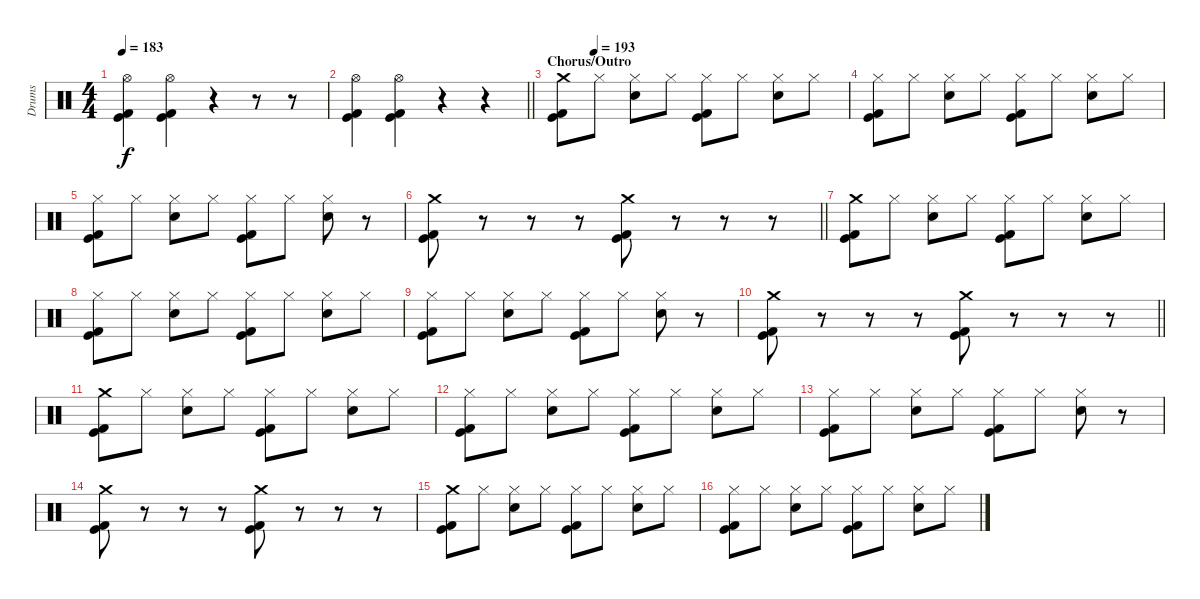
\track ("Drums" "Drums") {instrument percussion}
\staff
\articulation defaults
\ts (4 4)
\tempo 183
\clef neutral
\ks c
("Hi-Hat (open)" "Kick (hit)" "Kick (hit) 2").4{dy f} ("Hi-Hat (open)" "Kick (hit)" "Kick (hit) 2").4 r.4 r.8 r.8 |
\barLineRight lightlight
("Hi-Hat (open)" "Kick (hit)" "Kick (hit) 2").4 ("Hi-Hat (open)" "Kick (hit)" "Kick (hit) 2").4 r.4 r.4 |
\section ("" "Chorus/Outro")
\tempo (193 0.125)
("Crash medium (hit)" "Kick (hit)" "Kick (hit) 2").8 "Hi-Hat (closed)".8 ("Hi-Hat (closed)" "Snare (hit) 2").8 "Hi-Hat (closed)".8 ("Hi-Hat (closed)" "Kick (hit)" "Kick (hit) 2").8 "Hi-Hat (closed)".8 ("Hi-Hat (closed)" "Snare (hit) 2").8 "Hi-Hat (closed)".8 |
("Hi-Hat (closed)" "Kick (hit)" "Kick (hit) 2").8 "Hi-Hat (closed)".8 ("Hi-Hat (closed)" "Snare (hit) 2").8 "Hi-Hat (closed)".8 ("Hi-Hat (closed)" "Kick (hit)" "Kick (hit) 2").8 "Hi-Hat (closed)".8 ("Hi-Hat (closed)" "Snare (hit) 2").8 "Hi-Hat (closed)".8 |
("Hi-Hat (closed)" "Kick (hit)" "Kick (hit) 2").8 "Hi-Hat (closed)".8 ("Hi-Hat (closed)" "Snare (hit) 2").8 "Hi-Hat (closed)".8 ("Hi-Hat (closed)" "Kick (hit)" "Kick (hit) 2").8 "Hi-Hat (closed)".8 ("Hi-Hat (closed)" "Snare (hit) 2").8 r.8 |
\barLineRight lightlight
("Crash medium (hit)" "Kick (hit)" "Kick (hit) 2").8 r.8 r.8 r.8 ("Crash medium (hit)" "Kick (hit)" "Kick (hit) 2").8 r.8 r.8 r.8 |
("Crash medium (hit)" "Kick (hit)" "Kick (hit) 2").8 "Hi-Hat (closed)".8 ("Hi-Hat (closed)" "Snare (hit) 2").8 "Hi-Hat (closed)".8 ("Hi-Hat (closed)" "Kick (hit)" "Kick (hit) 2").8 "Hi-Hat (closed)".8 ("Hi-Hat (closed)" "Snare (hit) 2").8 "Hi-Hat (closed)".8 |
("Hi-Hat (closed)" "Kick (hit)" "Kick (hit) 2").8 "Hi-Hat (closed)".8 ("Hi-Hat (closed)" "Snare (hit) 2").8 "Hi-Hat (closed)".8 ("Hi-Hat (closed)" "Kick (hit)" "Kick (hit) 2").8 "Hi-Hat (closed)".8 ("Hi-Hat (closed)" "Snare (hit) 2").8 "Hi-Hat (closed)".8 |
("Hi-Hat (closed)" "Kick (hit)" "Kick (hit) 2").8 "Hi-Hat (closed)".8 ("Hi-Hat (closed)" "Snare (hit) 2").8 "Hi-Hat (closed)".8 ("Hi-Hat (closed)" "Kick (hit)" "Kick (hit) 2").8 "Hi-Hat (closed)".8 ("Hi-Hat (closed)" "Snare (hit) 2").8 r.8 |
\barLineRight lightlight
("Crash medium (hit)" "Kick (hit)" "Kick (hit) 2").8 r.8 r.8 r.8 ("Crash medium (hit)" "Kick (hit)" "Kick (hit) 2").8 r.8 r.8 r.8 |
("Crash medium (hit)" "Kick (hit)" "Kick (hit) 2").8 "Hi-Hat (closed)".8 ("Hi-Hat (closed)" "Snare (hit) 2").8 "Hi-Hat (closed)".8 ("Hi-Hat (closed)" "Kick (hit)" "Kick (hit) 2").8 "Hi-Hat (closed)".8 ("Hi-Hat (closed)" "Snare (hit) 2").8 "Hi-Hat (closed)".8 |
("Hi-Hat (closed)" "Kick (hit)" "Kick (hit) 2").8 "Hi-Hat (closed)".8 ("Hi-Hat (closed)" "Snare (hit) 2").8 "Hi-Hat (closed)".8 ("Hi-Hat (closed)" "Kick (hit)" "Kick (hit) 2").8 "Hi-Hat (closed)".8 ("Hi-Hat (closed)" "Snare (hit) 2").8 "Hi-Hat (closed)".8 |
("Hi-Hat (closed)" "Kick (hit)" "Kick (hit) 2").8 "Hi-Hat (closed)".8 ("Hi-Hat (closed)" "Snare (hit) 2").8 "Hi-Hat (closed)".8 ("Hi-Hat (closed)" "Kick (hit)" "Kick (hit) 2").8 "Hi-Hat (closed)".8 ("Hi-Hat (closed)" "Snare (hit) 2").8 r.8 |
("Crash medium (hit)" "Kick (hit)" "Kick (hit) 2").8 r.8 r.8 r.8 ("Crash medium (hit)" "Kick (hit)" "Kick (hit) 2").8 r.8 r.8 r.8 |
("Crash medium (hit)" "Kick (hit)" "Kick (hit) 2").8 "Hi-Hat (closed)".8 ("Hi-Hat (closed)" "Snare (hit) 2").8 "Hi-Hat (closed)".8 ("Hi-Hat (closed)" "Kick (hit)" "Kick (hit) 2").8 "Hi-Hat (closed)".8 ("Hi-Hat (closed)" "Snare (hit) 2").8 "Hi-Hat (closed)".8 |
("Hi-Hat (closed)" "Kick (hit)" "Kick (hit) 2").8 "Hi-Hat (closed)".8 ("Hi-Hat (closed)" "Snare (hit) 2").8 "Hi-Hat (closed)".8 ("Hi-Hat (closed)" "Kick (hit)" "Kick (hit) 2").8 "Hi-Hat (closed)".8 ("Hi-Hat (closed)" "Snare (hit) 2").8 "Hi-Hat (closed)".8
